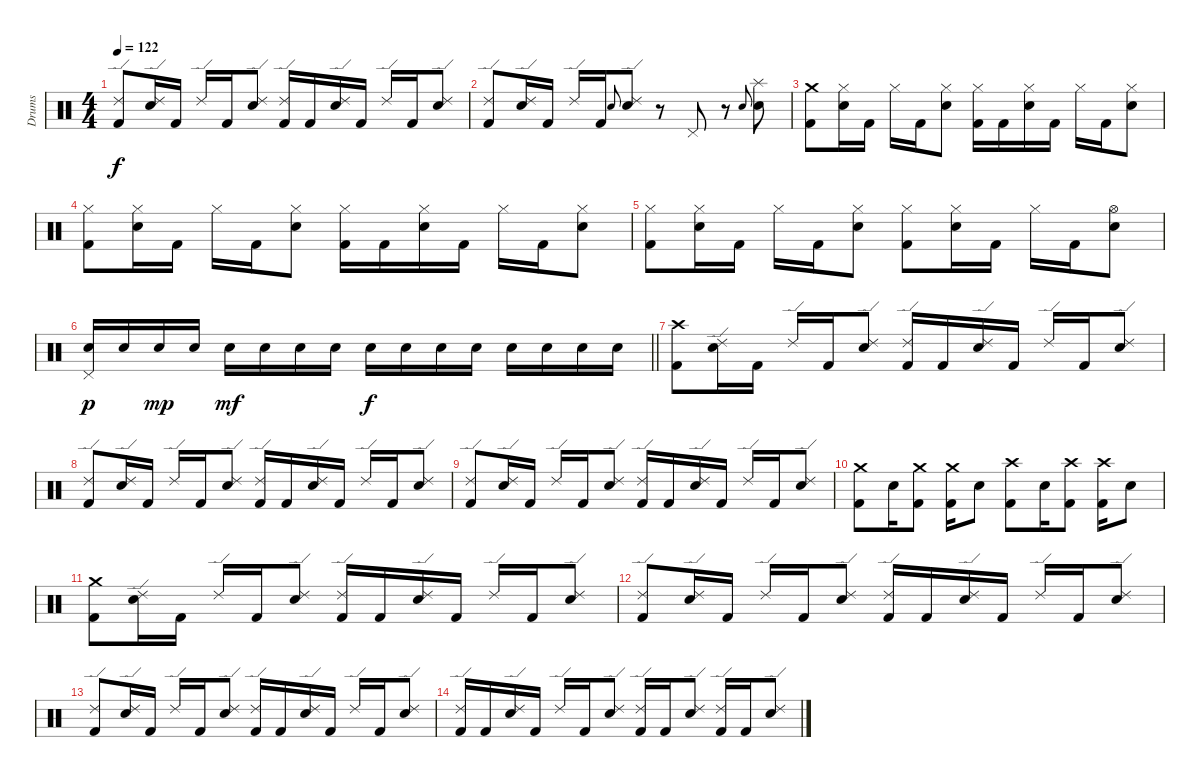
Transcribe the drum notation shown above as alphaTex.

\track ("Drums" "Drums") {instrument percussion}
\staff {score}
\articulation defaults
\ts (4 4)
\tempo 122
\clef neutral
\ks c
("Ride (edge) 2" "Kick (hit) 2").8{dy f} ("Ride (edge) 2" "Snare (hit) 2").16 "Kick (hit) 2".16 "Ride (edge) 2".16 "Kick (hit) 2".16 ("Ride (edge) 2" "Snare (hit) 2").8 ("Ride (edge) 2" "Kick (hit) 2").16 "Kick (hit) 2".16 ("Ride (edge) 2" "Snare (hit) 2").16 "Kick (hit) 2".16 "Ride (edge) 2".16 "Kick (hit) 2".16 ("Ride (edge) 2" "Snare (hit) 2").8 |
("Ride (edge) 2" "Kick (hit) 2").8 ("Ride (edge) 2" "Snare (hit) 2").16 "Kick (hit) 2".16 "Ride (edge) 2".16 "Kick (hit) 2".16 "Snare (hit) 2".8{gr onbeat} ("Ride (edge) 2" "Snare (hit) 2").8 r.8 "Pedal Hi-Hat (hit)".8 r.8 "Snare (hit) 2".8{gr onbeat} ("Splash (hit)" "Snare (hit) 2").8 |
("Crash medium (hit)" "Kick (hit) 2").8 ("Hi-Hat (closed)" "Snare (hit) 2").16 "Kick (hit) 2".16 "Hi-Hat (closed)".16 "Kick (hit) 2".16 ("Hi-Hat (closed)" "Snare (hit) 2").8 ("Hi-Hat (closed)" "Kick (hit) 2").16 "Kick (hit) 2".16 ("Hi-Hat (closed)" "Snare (hit) 2").16 "Kick (hit) 2".16 "Hi-Hat (closed)".16 "Kick (hit) 2".16 ("Hi-Hat (closed)" "Snare (hit) 2").8 |
("Hi-Hat (closed)" "Kick (hit) 2").8 ("Hi-Hat (closed)" "Snare (hit) 2").16 "Kick (hit) 2".16 "Hi-Hat (closed)".16 "Kick (hit) 2".16 ("Hi-Hat (closed)" "Snare (hit) 2").8 ("Hi-Hat (closed)" "Kick (hit) 2").16 "Kick (hit) 2".16 ("Hi-Hat (closed)" "Snare (hit) 2").16 "Kick (hit) 2".16 "Hi-Hat (closed)".16 "Kick (hit) 2".16 ("Hi-Hat (closed)" "Snare (hit) 2").8 |
("Hi-Hat (closed)" "Kick (hit) 2").8 ("Hi-Hat (closed)" "Snare (hit) 2").16 "Kick (hit) 2".16 "Hi-Hat (closed)".16 "Kick (hit) 2".16 ("Hi-Hat (closed)" "Snare (hit) 2").8 ("Hi-Hat (closed)" "Kick (hit) 2").8 ("Hi-Hat (closed)" "Snare (hit) 2").16 "Kick (hit) 2".16 "Hi-Hat (closed)".16 "Kick (hit) 2".16 ("Hi-Hat (open)" "Snare (hit) 2").8 |
\barLineRight lightlight
("Pedal Hi-Hat (hit)" "Snare (hit) 2").16{dy p} "Snare (hit) 2".16 "Snare (hit) 2".16{dy mp} "Snare (hit) 2".16 "Snare (hit) 2".16{dy mf} "Snare (hit) 2".16 "Snare (hit) 2".16 "Snare (hit) 2".16 "Snare (hit) 2".16{dy f} "Snare (hit) 2".16 "Snare (hit) 2".16 "Snare (hit) 2".16 "Snare (hit) 2".16 "Snare (hit) 2".16 "Snare (hit) 2".16 "Snare (hit) 2".16 |
\section ("" "")
("Crash high (hit)" "Kick (hit) 2").8 ("Ride (edge) 2" "Snare (hit) 2").16 "Kick (hit) 2".16 "Ride (edge) 2".16 "Kick (hit) 2".16 ("Ride (edge) 2" "Snare (hit) 2").8 ("Ride (edge) 2" "Kick (hit) 2").16 "Kick (hit) 2".16 ("Ride (edge) 2" "Snare (hit) 2").16 "Kick (hit) 2".16 "Ride (edge) 2".16 "Kick (hit) 2".16 ("Ride (edge) 2" "Snare (hit) 2").8 |
("Ride (edge) 2" "Kick (hit) 2").8 ("Ride (edge) 2" "Snare (hit) 2").16 "Kick (hit) 2".16 "Ride (edge) 2".16 "Kick (hit) 2".16 ("Ride (edge) 2" "Snare (hit) 2").8 ("Ride (edge) 2" "Kick (hit) 2").16 "Kick (hit) 2".16 ("Ride (edge) 2" "Snare (hit) 2").16 "Kick (hit) 2".16 "Ride (edge) 2".16 "Kick (hit) 2".16 ("Ride (edge) 2" "Snare (hit) 2").8 |
("Ride (edge) 2" "Kick (hit) 2").8 ("Ride (edge) 2" "Snare (hit) 2").16 "Kick (hit) 2".16 "Ride (edge) 2".16 "Kick (hit) 2".16 ("Ride (edge) 2" "Snare (hit) 2").8 ("Ride (edge) 2" "Kick (hit) 2").16 "Kick (hit) 2".16 ("Ride (edge) 2" "Snare (hit) 2").16 "Kick (hit) 2".16 "Ride (edge) 2".16 "Kick (hit) 2".16 ("Ride (edge) 2" "Snare (hit) 2").8 |
("Crash medium (hit)" "Kick (hit) 2").8 "Snare (hit) 2".16 ("Crash medium (hit)" "Kick (hit) 2").8 ("Crash medium (hit)" "Kick (hit) 2").16 "Snare (hit) 2".8 ("Crash high (hit)" "Kick (hit) 2").8 "Snare (hit) 2".16 ("Crash high (hit)" "Kick (hit) 2").8 ("Crash high (hit)" "Kick (hit) 2").16 "Snare (hit) 2".8 |
("Crash medium (hit)" "Kick (hit) 2").8 ("Ride (edge) 2" "Snare (hit) 2").16 "Kick (hit) 2".16 "Ride (edge) 2".16 "Kick (hit) 2".16 ("Ride (edge) 2" "Snare (hit) 2").8 ("Ride (edge) 2" "Kick (hit) 2").16 "Kick (hit) 2".16 ("Ride (edge) 2" "Snare (hit) 2").16 "Kick (hit) 2".16 "Ride (edge) 2".16 "Kick (hit) 2".16 ("Ride (edge) 2" "Snare (hit) 2").8 |
("Ride (edge) 2" "Kick (hit) 2").8 ("Ride (edge) 2" "Snare (hit) 2").16 "Kick (hit) 2".16 "Ride (edge) 2".16 "Kick (hit) 2".16 ("Ride (edge) 2" "Snare (hit) 2").8 ("Ride (edge) 2" "Kick (hit) 2").16 "Kick (hit) 2".16 ("Ride (edge) 2" "Snare (hit) 2").16 "Kick (hit) 2".16 "Ride (edge) 2".16 "Kick (hit) 2".16 ("Ride (edge) 2" "Snare (hit) 2").8 |
("Ride (edge) 2" "Kick (hit) 2").8 ("Ride (edge) 2" "Snare (hit) 2").16 "Kick (hit) 2".16 "Ride (edge) 2".16 "Kick (hit) 2".16 ("Ride (edge) 2" "Snare (hit) 2").8 ("Ride (edge) 2" "Kick (hit) 2").16 "Kick (hit) 2".16 ("Ride (edge) 2" "Snare (hit) 2").16 "Kick (hit) 2".16 "Ride (edge) 2".16 "Kick (hit) 2".16 ("Ride (edge) 2" "Snare (hit) 2").8 |
("Ride (edge) 2" "Kick (hit) 2").16 "Kick (hit) 2".16 ("Ride (edge) 2" "Snare (hit) 2").16 "Kick (hit) 2".16 "Ride (edge) 2".16 "Kick (hit) 2".16 ("Ride (edge) 2" "Snare (hit) 2").8 ("Ride (edge) 2" "Kick (hit) 2").16 "Kick (hit) 2".16 ("Ride (edge) 2" "Snare (hit) 2").8 ("Ride (edge) 2" "Kick (hit) 2").16 "Kick (hit) 2".16 ("Ride (edge) 2" "Snare (hit) 2").8
